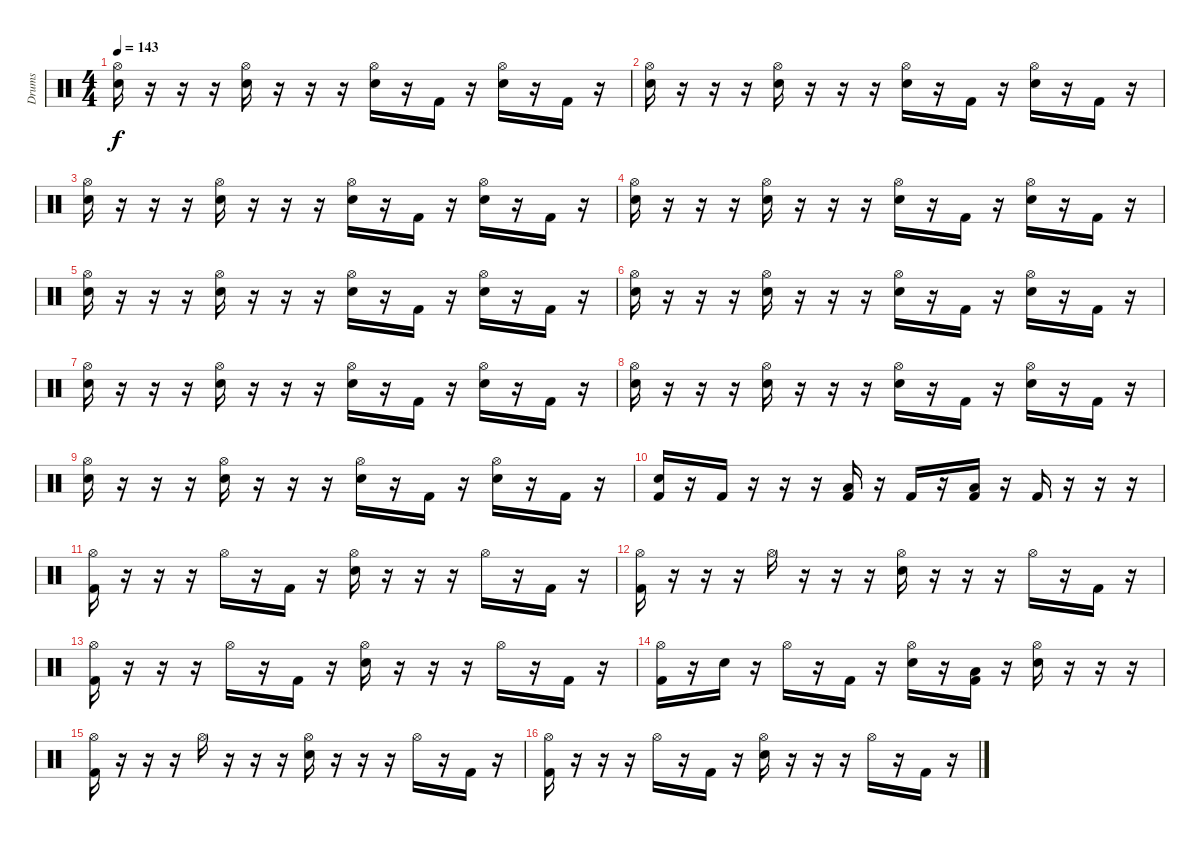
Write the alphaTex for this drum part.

\track ("Drums" "Drums") {instrument percussion}
\staff {score}
\articulation defaults
\ts (4 4)
\tempo 143
\clef neutral
\ks c
("Electric Snare (hit)" "Hi-Hat (open)").16{dy f} r.16 r.16 r.16 ("Electric Snare (hit)" "Hi-Hat (open)").16 r.16 r.16 r.16 ("Electric Snare (hit)" "Hi-Hat (open)").16 r.16 "Kick (hit) 2".16 r.16 ("Electric Snare (hit)" "Hi-Hat (open)").16 r.16 "Kick (hit) 2".16 r.16 |
("Electric Snare (hit)" "Hi-Hat (open)").16 r.16 r.16 r.16 ("Electric Snare (hit)" "Hi-Hat (open)").16 r.16 r.16 r.16 ("Electric Snare (hit)" "Hi-Hat (open)").16 r.16 "Kick (hit) 2".16 r.16 ("Electric Snare (hit)" "Hi-Hat (open)").16 r.16 "Kick (hit) 2".16 r.16 |
("Electric Snare (hit)" "Hi-Hat (open)").16 r.16 r.16 r.16 ("Electric Snare (hit)" "Hi-Hat (open)").16 r.16 r.16 r.16 ("Electric Snare (hit)" "Hi-Hat (open)").16 r.16 "Kick (hit) 2".16 r.16 ("Electric Snare (hit)" "Hi-Hat (open)").16 r.16 "Kick (hit) 2".16 r.16 |
("Electric Snare (hit)" "Hi-Hat (open)").16 r.16 r.16 r.16 ("Electric Snare (hit)" "Hi-Hat (open)").16 r.16 r.16 r.16 ("Electric Snare (hit)" "Hi-Hat (open)").16 r.16 "Kick (hit) 2".16 r.16 ("Electric Snare (hit)" "Hi-Hat (open)").16 r.16 "Kick (hit) 2".16 r.16 |
("Electric Snare (hit)" "Hi-Hat (open)").16 r.16 r.16 r.16 ("Electric Snare (hit)" "Hi-Hat (open)").16 r.16 r.16 r.16 ("Electric Snare (hit)" "Hi-Hat (open)").16 r.16 "Kick (hit) 2".16 r.16 ("Electric Snare (hit)" "Hi-Hat (open)").16 r.16 "Kick (hit) 2".16 r.16 |
("Electric Snare (hit)" "Hi-Hat (open)").16 r.16 r.16 r.16 ("Electric Snare (hit)" "Hi-Hat (open)").16 r.16 r.16 r.16 ("Electric Snare (hit)" "Hi-Hat (open)").16 r.16 "Kick (hit) 2".16 r.16 ("Electric Snare (hit)" "Hi-Hat (open)").16 r.16 "Kick (hit) 2".16 r.16 |
("Electric Snare (hit)" "Hi-Hat (open)").16 r.16 r.16 r.16 ("Electric Snare (hit)" "Hi-Hat (open)").16 r.16 r.16 r.16 ("Electric Snare (hit)" "Hi-Hat (open)").16 r.16 "Kick (hit) 2".16 r.16 ("Electric Snare (hit)" "Hi-Hat (open)").16 r.16 "Kick (hit) 2".16 r.16 |
("Electric Snare (hit)" "Hi-Hat (open)").16 r.16 r.16 r.16 ("Electric Snare (hit)" "Hi-Hat (open)").16 r.16 r.16 r.16 ("Electric Snare (hit)" "Hi-Hat (open)").16 r.16 "Kick (hit) 2".16 r.16 ("Electric Snare (hit)" "Hi-Hat (open)").16 r.16 "Kick (hit) 2".16 r.16 |
("Electric Snare (hit)" "Hi-Hat (open)").16 r.16 r.16 r.16 ("Electric Snare (hit)" "Hi-Hat (open)").16 r.16 r.16 r.16 ("Electric Snare (hit)" "Hi-Hat (open)").16 r.16 "Kick (hit) 2".16 r.16 ("Electric Snare (hit)" "Hi-Hat (open)").16 r.16 "Kick (hit) 2".16 r.16 |
("Kick (hit) 2" "Electric Snare (hit)").16 r.16 "Kick (hit) 2".16 r.16 r.16 r.16 ("Kick (hit) 2" "Low Tom (hit)").16 r.16 "Kick (hit) 2".16 r.16 ("Kick (hit) 2" "Low Tom (hit)").16 r.16 "Kick (hit) 2".16 r.16 r.16 r.16 |
("Kick (hit) 2" "Hi-Hat (open)").16 r.16 r.16 r.16 "Hi-Hat (open)".16 r.16 "Kick (hit) 2".16 r.16 ("Electric Snare (hit)" "Hi-Hat (open)").16 r.16 r.16 r.16 "Hi-Hat (open)".16 r.16 "Kick (hit) 2".16 r.16 |
("Kick (hit) 2" "Hi-Hat (open)").16 r.16 r.16 r.16 "Hi-Hat (open)".16 r.16 r.16 r.16 ("Electric Snare (hit)" "Hi-Hat (open)").16 r.16 r.16 r.16 "Hi-Hat (open)".16 r.16 "Kick (hit) 2".16 r.16 |
("Kick (hit) 2" "Hi-Hat (open)").16 r.16 r.16 r.16 "Hi-Hat (open)".16 r.16 "Kick (hit) 2".16 r.16 ("Electric Snare (hit)" "Hi-Hat (open)").16 r.16 r.16 r.16 "Hi-Hat (open)".16 r.16 "Kick (hit) 2".16 r.16 |
("Kick (hit) 2" "Hi-Hat (open)").16 r.16 "Electric Snare (hit)".16 r.16 "Hi-Hat (open)".16 r.16 "Kick (hit) 2".16 r.16 ("Electric Snare (hit)" "Hi-Hat (open)").16 r.16 ("Kick (hit) 2" "Low Tom (hit)").16 r.16 ("Electric Snare (hit)" "Hi-Hat (open)").16 r.16 r.16 r.16 |
("Kick (hit) 2" "Hi-Hat (open)").16 r.16 r.16 r.16 "Hi-Hat (open)".16 r.16 r.16 r.16 ("Electric Snare (hit)" "Hi-Hat (open)").16 r.16 r.16 r.16 "Hi-Hat (open)".16 r.16 "Kick (hit) 2".16 r.16 |
("Kick (hit) 2" "Hi-Hat (open)").16 r.16 r.16 r.16 "Hi-Hat (open)".16 r.16 "Kick (hit) 2".16 r.16 ("Electric Snare (hit)" "Hi-Hat (open)").16 r.16 r.16 r.16 "Hi-Hat (open)".16 r.16 "Kick (hit) 2".16 r.16
